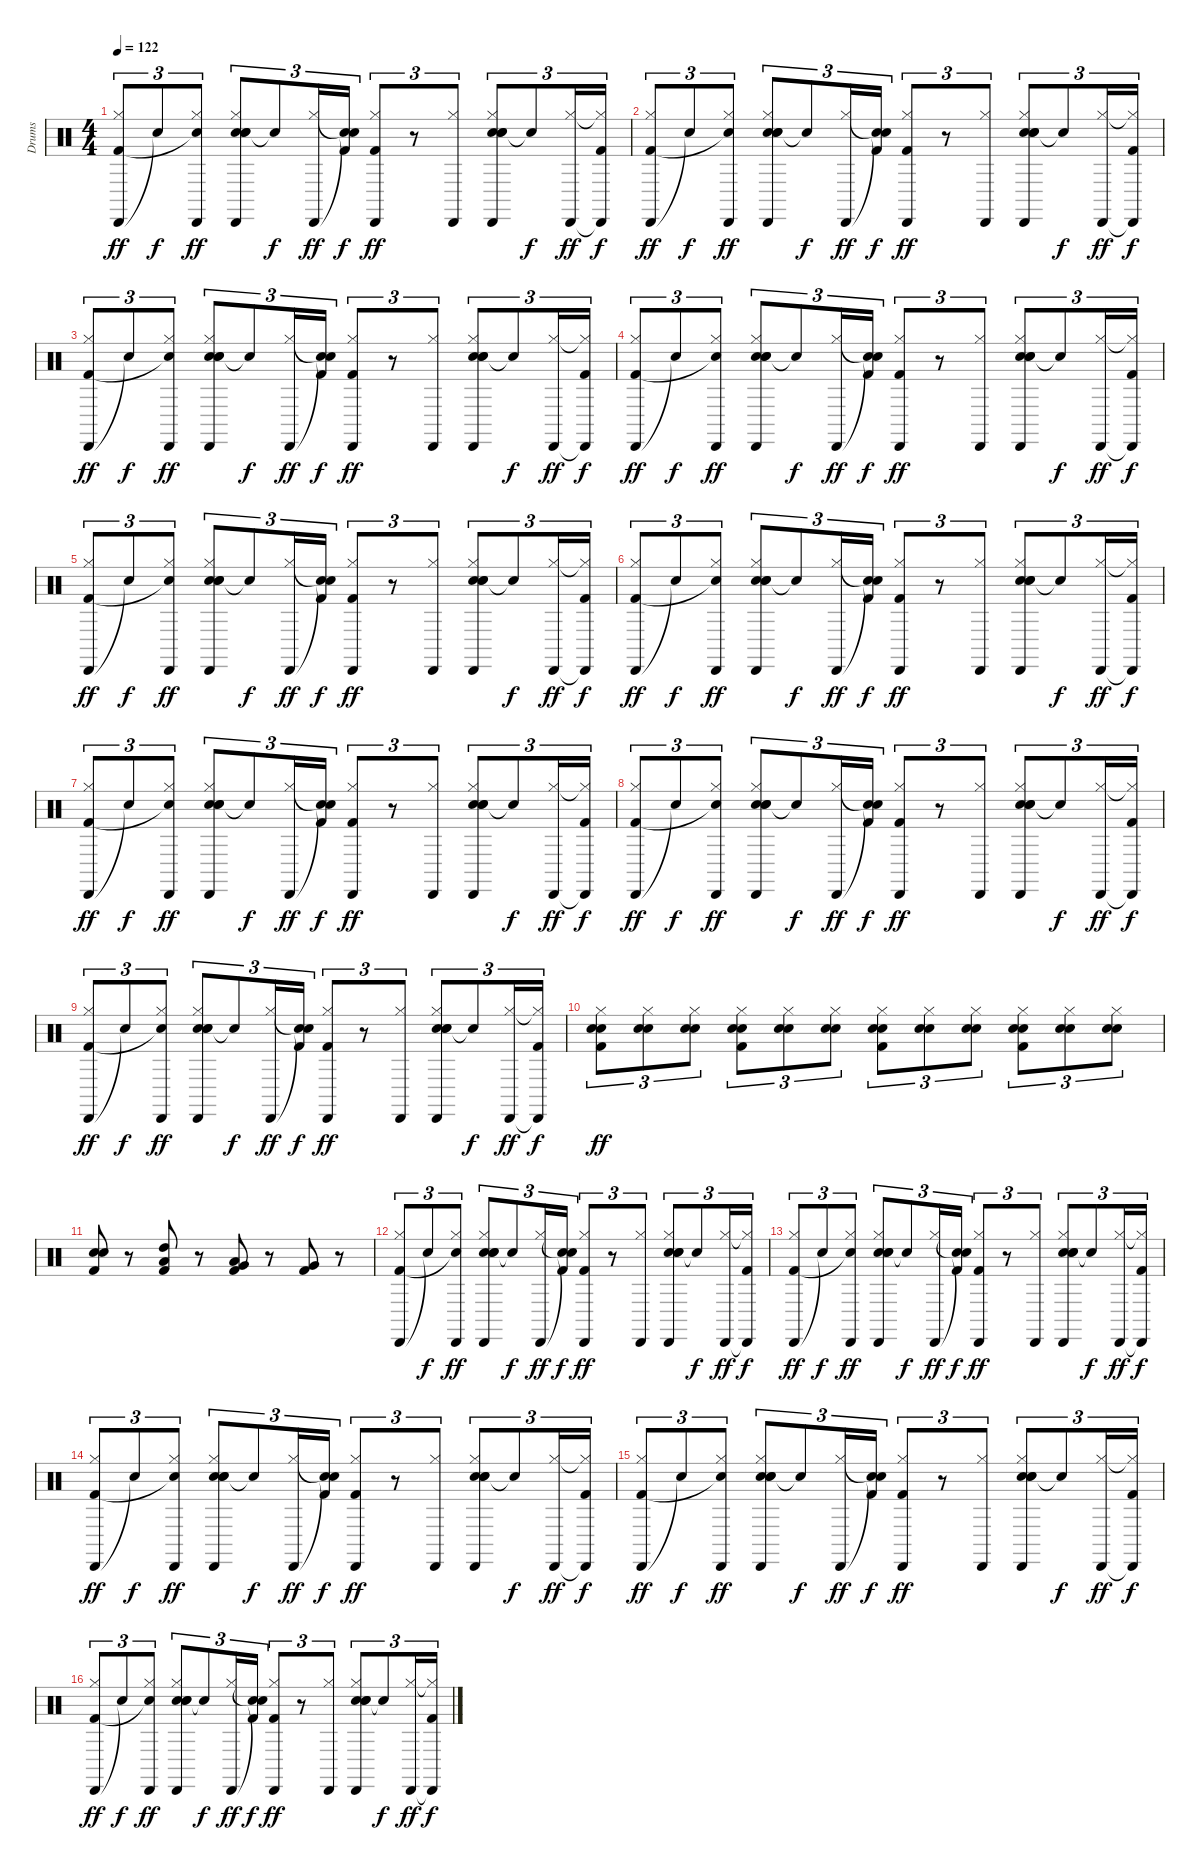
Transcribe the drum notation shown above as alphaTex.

\track ("Drums" "Drums") {instrument percussion}
\staff {score}
\articulation defaults
\ts (4 4)
\tempo 122
\clef neutral
\ks c
("Cabasa (hit)" "Hi-Hat (closed)" "Kick (hit) 2").8{tu (3 2) dy ff} "Snare (hit)"{t}.8{tu (3 2) dy f} ("Cabasa (hit)" "Hi-Hat (closed)" "Snare (hit)"{t}).8{tu (3 2) dy ff} ("Hand Clap (hit)" "Cabasa (hit)" "Hi-Hat (closed)" "Snare (hit) 2" "Hand Clap (hit)").8{tu (3 2)} "Snare (hit)"{t}.8{tu (3 2) dy f} ("Cabasa (hit)" "Hi-Hat (closed)").16{tu (3 2) dy ff} ("Snare (hit)"{t} "Snare (hit)"{t} "Kick (hit) 2").16{tu (3 2) dy f} ("Cabasa (hit)" "Hi-Hat (closed)" "Kick (hit) 2").8{tu (3 2) dy ff} r.8{tu (3 2)} ("Cabasa (hit)" "Hi-Hat (closed)").8{tu (3 2)} ("Hand Clap (hit)" "Cabasa (hit)" "Hi-Hat (closed)" "Snare (hit) 2" "Hand Clap (hit)").8{tu (3 2)} "Snare (hit)"{t}.8{tu (3 2) dy f} ("Cabasa (hit)" "Hi-Hat (closed)").16{tu (3 2) dy ff} ("Cabasa (hit)"{t} "Hi-Hat (closed)"{t} "Kick (hit) 2").16{tu (3 2) dy f} |
("Cabasa (hit)" "Hi-Hat (closed)" "Kick (hit) 2").8{tu (3 2) dy ff} "Snare (hit)"{t}.8{tu (3 2) dy f} ("Cabasa (hit)" "Hi-Hat (closed)" "Snare (hit)"{t}).8{tu (3 2) dy ff} ("Hand Clap (hit)" "Cabasa (hit)" "Hi-Hat (closed)" "Snare (hit) 2" "Hand Clap (hit)").8{tu (3 2)} "Snare (hit)"{t}.8{tu (3 2) dy f} ("Cabasa (hit)" "Hi-Hat (closed)").16{tu (3 2) dy ff} ("Snare (hit)"{t} "Snare (hit)"{t} "Kick (hit) 2").16{tu (3 2) dy f} ("Cabasa (hit)" "Hi-Hat (closed)" "Kick (hit) 2").8{tu (3 2) dy ff} r.8{tu (3 2)} ("Cabasa (hit)" "Hi-Hat (closed)").8{tu (3 2)} ("Hand Clap (hit)" "Cabasa (hit)" "Hi-Hat (closed)" "Snare (hit) 2" "Hand Clap (hit)").8{tu (3 2)} "Snare (hit)"{t}.8{tu (3 2) dy f} ("Cabasa (hit)" "Hi-Hat (closed)").16{tu (3 2) dy ff} ("Cabasa (hit)"{t} "Hi-Hat (closed)"{t} "Kick (hit) 2").16{tu (3 2) dy f} |
("Cabasa (hit)" "Hi-Hat (closed)" "Kick (hit) 2").8{tu (3 2) dy ff} "Snare (hit)"{t}.8{tu (3 2) dy f} ("Cabasa (hit)" "Hi-Hat (closed)" "Snare (hit)"{t}).8{tu (3 2) dy ff} ("Hand Clap (hit)" "Cabasa (hit)" "Hi-Hat (closed)" "Snare (hit) 2" "Hand Clap (hit)").8{tu (3 2)} "Snare (hit)"{t}.8{tu (3 2) dy f} ("Cabasa (hit)" "Hi-Hat (closed)").16{tu (3 2) dy ff} ("Snare (hit)"{t} "Snare (hit)"{t} "Kick (hit) 2").16{tu (3 2) dy f} ("Cabasa (hit)" "Hi-Hat (closed)" "Kick (hit) 2").8{tu (3 2) dy ff} r.8{tu (3 2)} ("Cabasa (hit)" "Hi-Hat (closed)").8{tu (3 2)} ("Hand Clap (hit)" "Cabasa (hit)" "Hi-Hat (closed)" "Snare (hit) 2" "Hand Clap (hit)").8{tu (3 2)} "Snare (hit)"{t}.8{tu (3 2) dy f} ("Cabasa (hit)" "Hi-Hat (closed)").16{tu (3 2) dy ff} ("Cabasa (hit)"{t} "Hi-Hat (closed)"{t} "Kick (hit) 2").16{tu (3 2) dy f} |
("Cabasa (hit)" "Hi-Hat (closed)" "Kick (hit) 2").8{tu (3 2) dy ff} "Snare (hit)"{t}.8{tu (3 2) dy f} ("Cabasa (hit)" "Hi-Hat (closed)" "Snare (hit)"{t}).8{tu (3 2) dy ff} ("Hand Clap (hit)" "Cabasa (hit)" "Hi-Hat (closed)" "Snare (hit) 2" "Hand Clap (hit)").8{tu (3 2)} "Snare (hit)"{t}.8{tu (3 2) dy f} ("Cabasa (hit)" "Hi-Hat (closed)").16{tu (3 2) dy ff} ("Snare (hit)"{t} "Snare (hit)"{t} "Kick (hit) 2").16{tu (3 2) dy f} ("Cabasa (hit)" "Hi-Hat (closed)" "Kick (hit) 2").8{tu (3 2) dy ff} r.8{tu (3 2)} ("Cabasa (hit)" "Hi-Hat (closed)").8{tu (3 2)} ("Hand Clap (hit)" "Cabasa (hit)" "Hi-Hat (closed)" "Snare (hit) 2" "Hand Clap (hit)").8{tu (3 2)} "Snare (hit)"{t}.8{tu (3 2) dy f} ("Cabasa (hit)" "Hi-Hat (closed)").16{tu (3 2) dy ff} ("Cabasa (hit)"{t} "Hi-Hat (closed)"{t} "Kick (hit) 2").16{tu (3 2) dy f} |
("Cabasa (hit)" "Hi-Hat (closed)" "Kick (hit) 2").8{tu (3 2) dy ff} "Snare (hit)"{t}.8{tu (3 2) dy f} ("Cabasa (hit)" "Hi-Hat (closed)" "Snare (hit)"{t}).8{tu (3 2) dy ff} ("Hand Clap (hit)" "Cabasa (hit)" "Hi-Hat (closed)" "Snare (hit) 2" "Hand Clap (hit)").8{tu (3 2)} "Snare (hit)"{t}.8{tu (3 2) dy f} ("Cabasa (hit)" "Hi-Hat (closed)").16{tu (3 2) dy ff} ("Snare (hit)"{t} "Snare (hit)"{t} "Kick (hit) 2").16{tu (3 2) dy f} ("Cabasa (hit)" "Hi-Hat (closed)" "Kick (hit) 2").8{tu (3 2) dy ff} r.8{tu (3 2)} ("Cabasa (hit)" "Hi-Hat (closed)").8{tu (3 2)} ("Hand Clap (hit)" "Cabasa (hit)" "Hi-Hat (closed)" "Snare (hit) 2" "Hand Clap (hit)").8{tu (3 2)} "Snare (hit)"{t}.8{tu (3 2) dy f} ("Cabasa (hit)" "Hi-Hat (closed)").16{tu (3 2) dy ff} ("Cabasa (hit)"{t} "Hi-Hat (closed)"{t} "Kick (hit) 2").16{tu (3 2) dy f} |
("Cabasa (hit)" "Hi-Hat (closed)" "Kick (hit) 2").8{tu (3 2) dy ff} "Snare (hit)"{t}.8{tu (3 2) dy f} ("Cabasa (hit)" "Hi-Hat (closed)" "Snare (hit)"{t}).8{tu (3 2) dy ff} ("Hand Clap (hit)" "Cabasa (hit)" "Hi-Hat (closed)" "Snare (hit) 2" "Hand Clap (hit)").8{tu (3 2)} "Snare (hit)"{t}.8{tu (3 2) dy f} ("Cabasa (hit)" "Hi-Hat (closed)").16{tu (3 2) dy ff} ("Snare (hit)"{t} "Snare (hit)"{t} "Kick (hit) 2").16{tu (3 2) dy f} ("Cabasa (hit)" "Hi-Hat (closed)" "Kick (hit) 2").8{tu (3 2) dy ff} r.8{tu (3 2)} ("Cabasa (hit)" "Hi-Hat (closed)").8{tu (3 2)} ("Hand Clap (hit)" "Cabasa (hit)" "Hi-Hat (closed)" "Snare (hit) 2" "Hand Clap (hit)").8{tu (3 2)} "Snare (hit)"{t}.8{tu (3 2) dy f} ("Cabasa (hit)" "Hi-Hat (closed)").16{tu (3 2) dy ff} ("Cabasa (hit)"{t} "Hi-Hat (closed)"{t} "Kick (hit) 2").16{tu (3 2) dy f} |
("Cabasa (hit)" "Hi-Hat (closed)" "Kick (hit) 2").8{tu (3 2) dy ff} "Snare (hit)"{t}.8{tu (3 2) dy f} ("Cabasa (hit)" "Hi-Hat (closed)" "Snare (hit)"{t}).8{tu (3 2) dy ff} ("Hand Clap (hit)" "Cabasa (hit)" "Hi-Hat (closed)" "Snare (hit) 2" "Hand Clap (hit)").8{tu (3 2)} "Snare (hit)"{t}.8{tu (3 2) dy f} ("Cabasa (hit)" "Hi-Hat (closed)").16{tu (3 2) dy ff} ("Snare (hit)"{t} "Snare (hit)"{t} "Kick (hit) 2").16{tu (3 2) dy f} ("Cabasa (hit)" "Hi-Hat (closed)" "Kick (hit) 2").8{tu (3 2) dy ff} r.8{tu (3 2)} ("Cabasa (hit)" "Hi-Hat (closed)").8{tu (3 2)} ("Hand Clap (hit)" "Cabasa (hit)" "Hi-Hat (closed)" "Snare (hit) 2" "Hand Clap (hit)").8{tu (3 2)} "Snare (hit)"{t}.8{tu (3 2) dy f} ("Cabasa (hit)" "Hi-Hat (closed)").16{tu (3 2) dy ff} ("Cabasa (hit)"{t} "Hi-Hat (closed)"{t} "Kick (hit) 2").16{tu (3 2) dy f} |
("Cabasa (hit)" "Hi-Hat (closed)" "Kick (hit) 2").8{tu (3 2) dy ff} "Snare (hit)"{t}.8{tu (3 2) dy f} ("Cabasa (hit)" "Hi-Hat (closed)" "Snare (hit)"{t}).8{tu (3 2) dy ff} ("Hand Clap (hit)" "Cabasa (hit)" "Hi-Hat (closed)" "Snare (hit) 2" "Hand Clap (hit)").8{tu (3 2)} "Snare (hit)"{t}.8{tu (3 2) dy f} ("Cabasa (hit)" "Hi-Hat (closed)").16{tu (3 2) dy ff} ("Snare (hit)"{t} "Snare (hit)"{t} "Kick (hit) 2").16{tu (3 2) dy f} ("Cabasa (hit)" "Hi-Hat (closed)" "Kick (hit) 2").8{tu (3 2) dy ff} r.8{tu (3 2)} ("Cabasa (hit)" "Hi-Hat (closed)").8{tu (3 2)} ("Hand Clap (hit)" "Cabasa (hit)" "Hi-Hat (closed)" "Snare (hit) 2" "Hand Clap (hit)").8{tu (3 2)} "Snare (hit)"{t}.8{tu (3 2) dy f} ("Cabasa (hit)" "Hi-Hat (closed)").16{tu (3 2) dy ff} ("Cabasa (hit)"{t} "Hi-Hat (closed)"{t} "Kick (hit) 2").16{tu (3 2) dy f} |
("Cabasa (hit)" "Hi-Hat (closed)" "Kick (hit) 2").8{tu (3 2) dy ff} "Snare (hit)"{t}.8{tu (3 2) dy f} ("Cabasa (hit)" "Hi-Hat (closed)" "Snare (hit)"{t}).8{tu (3 2) dy ff} ("Hand Clap (hit)" "Cabasa (hit)" "Hi-Hat (closed)" "Snare (hit) 2" "Hand Clap (hit)").8{tu (3 2)} "Snare (hit)"{t}.8{tu (3 2) dy f} ("Cabasa (hit)" "Hi-Hat (closed)").16{tu (3 2) dy ff} ("Snare (hit)"{t} "Snare (hit)"{t} "Kick (hit) 2").16{tu (3 2) dy f} ("Cabasa (hit)" "Hi-Hat (closed)" "Kick (hit) 2").8{tu (3 2) dy ff} r.8{tu (3 2)} ("Cabasa (hit)" "Hi-Hat (closed)").8{tu (3 2)} ("Hand Clap (hit)" "Cabasa (hit)" "Hi-Hat (closed)" "Snare (hit) 2" "Hand Clap (hit)").8{tu (3 2)} "Snare (hit)"{t}.8{tu (3 2) dy f} ("Cabasa (hit)" "Hi-Hat (closed)").16{tu (3 2) dy ff} ("Cabasa (hit)"{t} "Hi-Hat (closed)"{t} "Kick (hit) 2").16{tu (3 2) dy f} |
("Hand Clap (hit)" "Hi-Hat (closed)" "Snare (hit) 2" "Kick (hit) 2").8{tu (3 2) dy ff} ("Hand Clap (hit)" "Hi-Hat (closed)" "Snare (hit) 2").8{tu (3 2)} ("Hand Clap (hit)" "Hi-Hat (closed)" "Snare (hit) 2").8{tu (3 2)} ("Hand Clap (hit)" "Hi-Hat (closed)" "Snare (hit) 2" "Kick (hit) 2").8{tu (3 2)} ("Hand Clap (hit)" "Hi-Hat (closed)" "Snare (hit) 2").8{tu (3 2)} ("Hand Clap (hit)" "Hi-Hat (closed)" "Snare (hit) 2").8{tu (3 2)} ("Hand Clap (hit)" "Hi-Hat (closed)" "Snare (hit) 2" "Kick (hit) 2").8{tu (3 2)} ("Hand Clap (hit)" "Hi-Hat (closed)" "Snare (hit) 2").8{tu (3 2)} ("Hand Clap (hit)" "Hi-Hat (closed)" "Snare (hit) 2").8{tu (3 2)} ("Hand Clap (hit)" "Hi-Hat (closed)" "Snare (hit) 2" "Kick (hit) 2").8{tu (3 2)} ("Hand Clap (hit)" "Hi-Hat (closed)" "Snare (hit) 2").8{tu (3 2)} ("Hand Clap (hit)" "Hi-Hat (closed)" "Snare (hit) 2").8{tu (3 2)} |
("Hand Clap (hit)" "Snare (hit) 2" "Kick (hit) 2").8 r.8 ("High Tom (hit)" "Low Tom (hit)" "Kick (hit) 2").8 r.8 ("Low Tom (hit)" "Very Low Tom (hit)" "Kick (hit) 2").8 r.8 ("Very Low Tom (hit)" "Kick (hit) 2").8 r.8 |
("Cabasa (hit)" "Hi-Hat (closed)" "Kick (hit) 2").8{tu (3 2)} "Snare (hit)"{t}.8{tu (3 2) dy f} ("Cabasa (hit)" "Hi-Hat (closed)" "Snare (hit)"{t}).8{tu (3 2) dy ff} ("Hand Clap (hit)" "Cabasa (hit)" "Hi-Hat (closed)" "Snare (hit) 2" "Hand Clap (hit)").8{tu (3 2)} "Snare (hit)"{t}.8{tu (3 2) dy f} ("Cabasa (hit)" "Hi-Hat (closed)").16{tu (3 2) dy ff} ("Snare (hit)"{t} "Snare (hit)"{t} "Kick (hit) 2").16{tu (3 2) dy f} ("Cabasa (hit)" "Hi-Hat (closed)" "Kick (hit) 2").8{tu (3 2) dy ff} r.8{tu (3 2)} ("Cabasa (hit)" "Hi-Hat (closed)").8{tu (3 2)} ("Hand Clap (hit)" "Cabasa (hit)" "Hi-Hat (closed)" "Snare (hit) 2" "Hand Clap (hit)").8{tu (3 2)} "Snare (hit)"{t}.8{tu (3 2) dy f} ("Cabasa (hit)" "Hi-Hat (closed)").16{tu (3 2) dy ff} ("Cabasa (hit)"{t} "Hi-Hat (closed)"{t} "Kick (hit) 2").16{tu (3 2) dy f} |
("Cabasa (hit)" "Hi-Hat (closed)" "Kick (hit) 2").8{tu (3 2) dy ff} "Snare (hit)"{t}.8{tu (3 2) dy f} ("Cabasa (hit)" "Hi-Hat (closed)" "Snare (hit)"{t}).8{tu (3 2) dy ff} ("Hand Clap (hit)" "Cabasa (hit)" "Hi-Hat (closed)" "Snare (hit) 2" "Hand Clap (hit)").8{tu (3 2)} "Snare (hit)"{t}.8{tu (3 2) dy f} ("Cabasa (hit)" "Hi-Hat (closed)").16{tu (3 2) dy ff} ("Snare (hit)"{t} "Snare (hit)"{t} "Kick (hit) 2").16{tu (3 2) dy f} ("Cabasa (hit)" "Hi-Hat (closed)" "Kick (hit) 2").8{tu (3 2) dy ff} r.8{tu (3 2)} ("Cabasa (hit)" "Hi-Hat (closed)").8{tu (3 2)} ("Hand Clap (hit)" "Cabasa (hit)" "Hi-Hat (closed)" "Snare (hit) 2" "Hand Clap (hit)").8{tu (3 2)} "Snare (hit)"{t}.8{tu (3 2) dy f} ("Cabasa (hit)" "Hi-Hat (closed)").16{tu (3 2) dy ff} ("Cabasa (hit)"{t} "Hi-Hat (closed)"{t} "Kick (hit) 2").16{tu (3 2) dy f} |
("Cabasa (hit)" "Hi-Hat (closed)" "Kick (hit) 2").8{tu (3 2) dy ff} "Snare (hit)"{t}.8{tu (3 2) dy f} ("Cabasa (hit)" "Hi-Hat (closed)" "Snare (hit)"{t}).8{tu (3 2) dy ff} ("Hand Clap (hit)" "Cabasa (hit)" "Hi-Hat (closed)" "Snare (hit) 2" "Hand Clap (hit)").8{tu (3 2)} "Snare (hit)"{t}.8{tu (3 2) dy f} ("Cabasa (hit)" "Hi-Hat (closed)").16{tu (3 2) dy ff} ("Snare (hit)"{t} "Snare (hit)"{t} "Kick (hit) 2").16{tu (3 2) dy f} ("Cabasa (hit)" "Hi-Hat (closed)" "Kick (hit) 2").8{tu (3 2) dy ff} r.8{tu (3 2)} ("Cabasa (hit)" "Hi-Hat (closed)").8{tu (3 2)} ("Hand Clap (hit)" "Cabasa (hit)" "Hi-Hat (closed)" "Snare (hit) 2" "Hand Clap (hit)").8{tu (3 2)} "Snare (hit)"{t}.8{tu (3 2) dy f} ("Cabasa (hit)" "Hi-Hat (closed)").16{tu (3 2) dy ff} ("Cabasa (hit)"{t} "Hi-Hat (closed)"{t} "Kick (hit) 2").16{tu (3 2) dy f} |
("Cabasa (hit)" "Hi-Hat (closed)" "Kick (hit) 2").8{tu (3 2) dy ff} "Snare (hit)"{t}.8{tu (3 2) dy f} ("Cabasa (hit)" "Hi-Hat (closed)" "Snare (hit)"{t}).8{tu (3 2) dy ff} ("Hand Clap (hit)" "Cabasa (hit)" "Hi-Hat (closed)" "Snare (hit) 2" "Hand Clap (hit)").8{tu (3 2)} "Snare (hit)"{t}.8{tu (3 2) dy f} ("Cabasa (hit)" "Hi-Hat (closed)").16{tu (3 2) dy ff} ("Snare (hit)"{t} "Snare (hit)"{t} "Kick (hit) 2").16{tu (3 2) dy f} ("Cabasa (hit)" "Hi-Hat (closed)" "Kick (hit) 2").8{tu (3 2) dy ff} r.8{tu (3 2)} ("Cabasa (hit)" "Hi-Hat (closed)").8{tu (3 2)} ("Hand Clap (hit)" "Cabasa (hit)" "Hi-Hat (closed)" "Snare (hit) 2" "Hand Clap (hit)").8{tu (3 2)} "Snare (hit)"{t}.8{tu (3 2) dy f} ("Cabasa (hit)" "Hi-Hat (closed)").16{tu (3 2) dy ff} ("Cabasa (hit)"{t} "Hi-Hat (closed)"{t} "Kick (hit) 2").16{tu (3 2) dy f} |
("Cabasa (hit)" "Hi-Hat (closed)" "Kick (hit) 2").8{tu (3 2) dy ff} "Snare (hit)"{t}.8{tu (3 2) dy f} ("Cabasa (hit)" "Hi-Hat (closed)" "Snare (hit)"{t}).8{tu (3 2) dy ff} ("Hand Clap (hit)" "Cabasa (hit)" "Hi-Hat (closed)" "Snare (hit) 2" "Hand Clap (hit)").8{tu (3 2)} "Snare (hit)"{t}.8{tu (3 2) dy f} ("Cabasa (hit)" "Hi-Hat (closed)").16{tu (3 2) dy ff} ("Snare (hit)"{t} "Snare (hit)"{t} "Kick (hit) 2").16{tu (3 2) dy f} ("Cabasa (hit)" "Hi-Hat (closed)" "Kick (hit) 2").8{tu (3 2) dy ff} r.8{tu (3 2)} ("Cabasa (hit)" "Hi-Hat (closed)").8{tu (3 2)} ("Hand Clap (hit)" "Cabasa (hit)" "Hi-Hat (closed)" "Snare (hit) 2" "Hand Clap (hit)").8{tu (3 2)} "Snare (hit)"{t}.8{tu (3 2) dy f} ("Cabasa (hit)" "Hi-Hat (closed)").16{tu (3 2) dy ff} ("Cabasa (hit)"{t} "Hi-Hat (closed)"{t} "Kick (hit) 2").16{tu (3 2) dy f}
